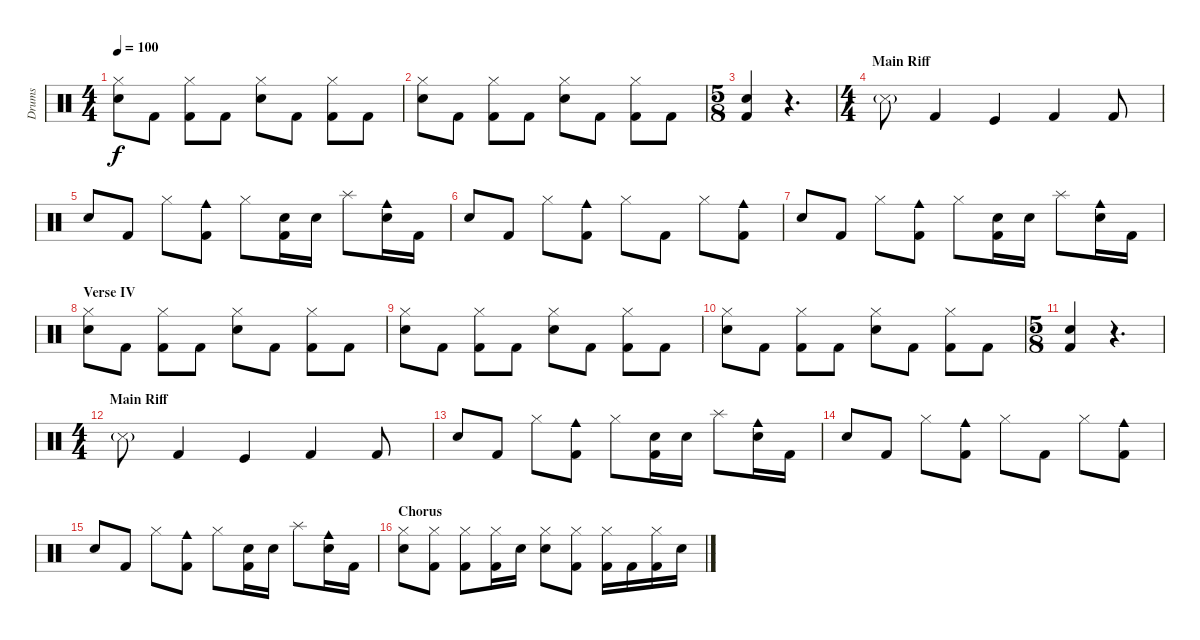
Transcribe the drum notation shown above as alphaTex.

\track ("Drums" "Drums") {instrument percussion}
\staff {score}
\articulation defaults
\ts (4 4)
\tempo 100
\clef neutral
\ks c
("Hi-Hat (closed)" "Snare (hit) 2").8{dy f} "Kick (hit) 2".8 ("Hi-Hat (closed)" "Kick (hit) 2").8 "Kick (hit) 2".8 ("Hi-Hat (closed)" "Snare (hit) 2").8 "Kick (hit) 2".8 ("Hi-Hat (closed)" "Kick (hit) 2").8 "Kick (hit) 2".8 |
("Hi-Hat (closed)" "Snare (hit) 2").8 "Kick (hit) 2".8 ("Hi-Hat (closed)" "Kick (hit) 2").8 "Kick (hit) 2".8 ("Hi-Hat (closed)" "Snare (hit) 2").8 "Kick (hit) 2".8 ("Hi-Hat (closed)" "Kick (hit) 2").8 "Kick (hit) 2".8 |
\ts (5 8)
("Snare (hit) 2" "Kick (hit) 2").4 r.4{d} |
\ts (4 4)
\section ("" "Main Riff")
"Snare (side stick) 3"{g}.8 "Kick (hit) 2".4 "Kick (hit)".4 "Kick (hit) 2".4 "Kick (hit) 2".8 |
"Snare (hit) 2".8 "Kick (hit) 2".8 "Hi-Hat (closed)".8 ("Cowbell medium (hit)" "Kick (hit) 2").8 "Hi-Hat (closed)".8 ("Snare (hit) 2" "Kick (hit) 2").16 "Snare (hit) 2".16 "Splash (hit)".8 ("Cowbell medium (hit)" "Snare (hit) 2").16 "Kick (hit) 2".16 |
"Snare (hit) 2".8 "Kick (hit) 2".8 "Hi-Hat (closed)".8 ("Cowbell medium (hit)" "Kick (hit) 2").8 "Hi-Hat (closed)".8 "Kick (hit) 2".8 "Hi-Hat (closed)".8 ("Cowbell medium (hit)" "Kick (hit) 2").8 |
"Snare (hit) 2".8 "Kick (hit) 2".8 "Hi-Hat (closed)".8 ("Cowbell medium (hit)" "Kick (hit) 2").8 "Hi-Hat (closed)".8 ("Snare (hit) 2" "Kick (hit) 2").16 "Snare (hit) 2".16 "Splash (hit)".8 ("Cowbell medium (hit)" "Snare (hit) 2").16 "Kick (hit) 2".16 |
\section ("" "Verse IV")
("Hi-Hat (closed)" "Snare (hit) 2").8 "Kick (hit) 2".8 ("Hi-Hat (closed)" "Kick (hit) 2").8 "Kick (hit) 2".8 ("Hi-Hat (closed)" "Snare (hit) 2").8 "Kick (hit) 2".8 ("Hi-Hat (closed)" "Kick (hit) 2").8 "Kick (hit) 2".8 |
("Hi-Hat (closed)" "Snare (hit) 2").8 "Kick (hit) 2".8 ("Hi-Hat (closed)" "Kick (hit) 2").8 "Kick (hit) 2".8 ("Hi-Hat (closed)" "Snare (hit) 2").8 "Kick (hit) 2".8 ("Hi-Hat (closed)" "Kick (hit) 2").8 "Kick (hit) 2".8 |
("Hi-Hat (closed)" "Snare (hit) 2").8 "Kick (hit) 2".8 ("Hi-Hat (closed)" "Kick (hit) 2").8 "Kick (hit) 2".8 ("Hi-Hat (closed)" "Snare (hit) 2").8 "Kick (hit) 2".8 ("Hi-Hat (closed)" "Kick (hit) 2").8 "Kick (hit) 2".8 |
\ts (5 8)
("Snare (hit) 2" "Kick (hit) 2").4 r.4{d} |
\ts (4 4)
\section ("" "Main Riff")
"Snare (side stick) 3"{g}.8 "Kick (hit) 2".4 "Kick (hit)".4 "Kick (hit) 2".4 "Kick (hit) 2".8 |
"Snare (hit) 2".8 "Kick (hit) 2".8 "Hi-Hat (closed)".8 ("Cowbell medium (hit)" "Kick (hit) 2").8 "Hi-Hat (closed)".8 ("Snare (hit) 2" "Kick (hit) 2").16 "Snare (hit) 2".16 "Splash (hit)".8 ("Cowbell medium (hit)" "Snare (hit) 2").16 "Kick (hit) 2".16 |
"Snare (hit) 2".8 "Kick (hit) 2".8 "Hi-Hat (closed)".8 ("Cowbell medium (hit)" "Kick (hit) 2").8 "Hi-Hat (closed)".8 "Kick (hit) 2".8 "Hi-Hat (closed)".8 ("Cowbell medium (hit)" "Kick (hit) 2").8 |
"Snare (hit) 2".8 "Kick (hit) 2".8 "Hi-Hat (closed)".8 ("Cowbell medium (hit)" "Kick (hit) 2").8 "Hi-Hat (closed)".8 ("Snare (hit) 2" "Kick (hit) 2").16 "Snare (hit) 2".16 "Splash (hit)".8 ("Cowbell medium (hit)" "Snare (hit) 2").16 "Kick (hit) 2".16 |
\section ("" "Chorus")
("Hi-Hat (closed)" "Snare (hit) 2").8 ("Hi-Hat (closed)" "Kick (hit) 2").8 ("Hi-Hat (closed)" "Kick (hit) 2").8 ("Hi-Hat (closed)" "Kick (hit) 2").16 "Snare (hit) 2".16 ("Hi-Hat (closed)" "Snare (hit) 2").8 ("Hi-Hat (closed)" "Kick (hit) 2").8 ("Hi-Hat (closed)" "Kick (hit) 2").16 "Kick (hit) 2".16 ("Hi-Hat (closed)" "Kick (hit) 2").16 "Snare (hit) 2".16
